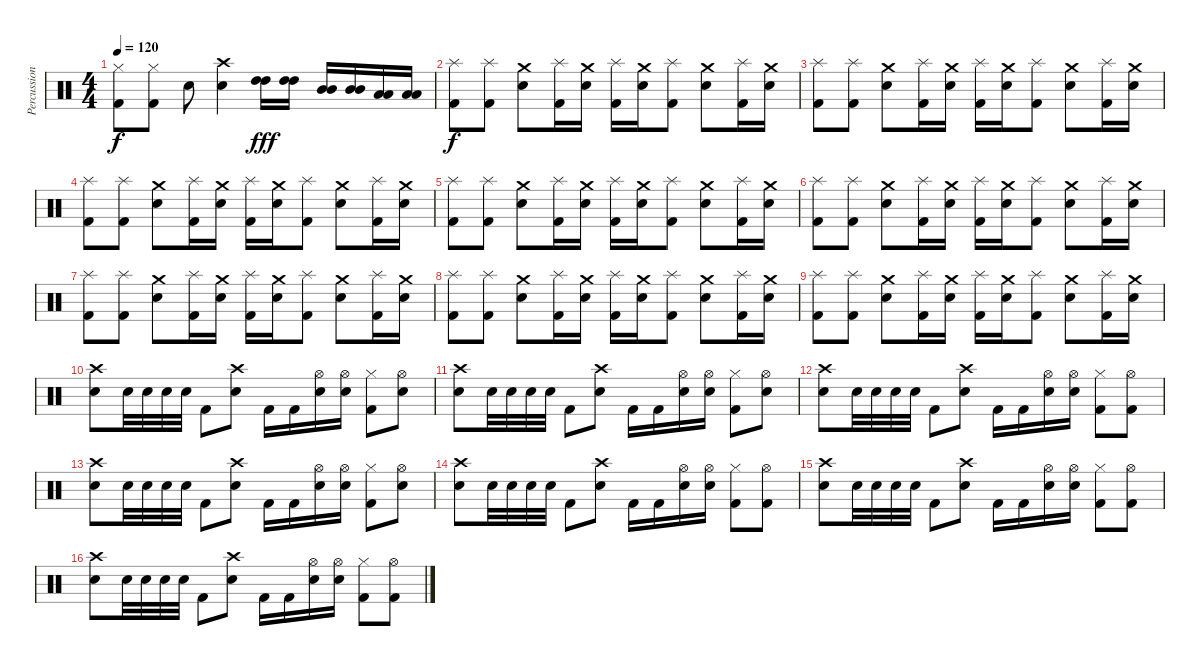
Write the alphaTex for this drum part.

\track ("Percussions" "Percussion") {instrument percussion}
\staff {score}
\articulation defaults
\ts (4 4)
\tempo 120
\clef neutral
\ks c
("Hi-Hat (closed)" "Kick (hit) 2").8{dy f} ("Hi-Hat (closed)" "Kick (hit) 2").8 "Snare (hit) 2".8 ("Crash high (hit)" "Snare (hit) 2").4 ("High Tom (hit)" "High Tom (hit)").16{dy fff} ("High Tom (hit)" "High Tom (hit)").16 ("Mid Tom (hit)" "Mid Tom (hit)").16 ("Mid Tom (hit)" "Mid Tom (hit)").16 ("Low Tom (hit)" "Low Tom (hit)").16 ("Low Tom (hit)" "Low Tom (hit)").16 |
("Splash (hit)" "Kick (hit) 2").8{dy f} ("Splash (hit)" "Kick (hit) 2").8 ("Crash medium (hit)" "Snare (hit) 2").8 ("Splash (hit)" "Kick (hit) 2").16 ("Crash medium (hit)" "Snare (hit) 2").16 ("Splash (hit)" "Kick (hit) 2").16 ("Crash medium (hit)" "Snare (hit) 2").16 ("Splash (hit)" "Kick (hit) 2").8 ("Crash medium (hit)" "Snare (hit) 2").8 ("Splash (hit)" "Kick (hit) 2").16 ("Crash medium (hit)" "Snare (hit) 2").16 |
("Splash (hit)" "Kick (hit) 2").8 ("Splash (hit)" "Kick (hit) 2").8 ("Crash medium (hit)" "Snare (hit) 2").8 ("Splash (hit)" "Kick (hit) 2").16 ("Crash medium (hit)" "Snare (hit) 2").16 ("Splash (hit)" "Kick (hit) 2").16 ("Crash medium (hit)" "Snare (hit) 2").16 ("Splash (hit)" "Kick (hit) 2").8 ("Crash medium (hit)" "Snare (hit) 2").8 ("Splash (hit)" "Kick (hit) 2").16 ("Crash medium (hit)" "Snare (hit) 2").16 |
("Splash (hit)" "Kick (hit) 2").8 ("Splash (hit)" "Kick (hit) 2").8 ("Crash medium (hit)" "Snare (hit) 2").8 ("Splash (hit)" "Kick (hit) 2").16 ("Crash medium (hit)" "Snare (hit) 2").16 ("Splash (hit)" "Kick (hit) 2").16 ("Crash medium (hit)" "Snare (hit) 2").16 ("Splash (hit)" "Kick (hit) 2").8 ("Crash medium (hit)" "Snare (hit) 2").8 ("Splash (hit)" "Kick (hit) 2").16 ("Crash medium (hit)" "Snare (hit) 2").16 |
("Splash (hit)" "Kick (hit) 2").8 ("Splash (hit)" "Kick (hit) 2").8 ("Crash medium (hit)" "Snare (hit) 2").8 ("Splash (hit)" "Kick (hit) 2").16 ("Crash medium (hit)" "Snare (hit) 2").16 ("Splash (hit)" "Kick (hit) 2").16 ("Crash medium (hit)" "Snare (hit) 2").16 ("Splash (hit)" "Kick (hit) 2").8 ("Crash medium (hit)" "Snare (hit) 2").8 ("Splash (hit)" "Kick (hit) 2").16 ("Crash medium (hit)" "Snare (hit) 2").16 |
("Splash (hit)" "Kick (hit) 2").8 ("Splash (hit)" "Kick (hit) 2").8 ("Crash medium (hit)" "Snare (hit) 2").8 ("Splash (hit)" "Kick (hit) 2").16 ("Crash medium (hit)" "Snare (hit) 2").16 ("Splash (hit)" "Kick (hit) 2").16 ("Crash medium (hit)" "Snare (hit) 2").16 ("Splash (hit)" "Kick (hit) 2").8 ("Crash medium (hit)" "Snare (hit) 2").8 ("Splash (hit)" "Kick (hit) 2").16 ("Crash medium (hit)" "Snare (hit) 2").16 |
("Splash (hit)" "Kick (hit) 2").8 ("Splash (hit)" "Kick (hit) 2").8 ("Crash medium (hit)" "Snare (hit) 2").8 ("Splash (hit)" "Kick (hit) 2").16 ("Crash medium (hit)" "Snare (hit) 2").16 ("Splash (hit)" "Kick (hit) 2").16 ("Crash medium (hit)" "Snare (hit) 2").16 ("Splash (hit)" "Kick (hit) 2").8 ("Crash medium (hit)" "Snare (hit) 2").8 ("Splash (hit)" "Kick (hit) 2").16 ("Crash medium (hit)" "Snare (hit) 2").16 |
("Splash (hit)" "Kick (hit) 2").8 ("Splash (hit)" "Kick (hit) 2").8 ("Crash medium (hit)" "Snare (hit) 2").8 ("Splash (hit)" "Kick (hit) 2").16 ("Crash medium (hit)" "Snare (hit) 2").16 ("Splash (hit)" "Kick (hit) 2").16 ("Crash medium (hit)" "Snare (hit) 2").16 ("Splash (hit)" "Kick (hit) 2").8 ("Crash medium (hit)" "Snare (hit) 2").8 ("Splash (hit)" "Kick (hit) 2").16 ("Crash medium (hit)" "Snare (hit) 2").16 |
("Splash (hit)" "Kick (hit) 2").8 ("Splash (hit)" "Kick (hit) 2").8 ("Crash medium (hit)" "Snare (hit) 2").8 ("Splash (hit)" "Kick (hit) 2").16 ("Crash medium (hit)" "Snare (hit) 2").16 ("Splash (hit)" "Kick (hit) 2").16 ("Crash medium (hit)" "Snare (hit) 2").16 ("Splash (hit)" "Kick (hit) 2").8 ("Crash medium (hit)" "Snare (hit) 2").8 ("Splash (hit)" "Kick (hit) 2").16 ("Crash medium (hit)" "Snare (hit) 2").16 |
("Crash high (hit)" "Snare (hit) 2").8 "Snare (hit) 2".32 "Snare (hit) 2".32 "Snare (hit) 2".32 "Snare (hit) 2".32 "Kick (hit) 2".8 ("Crash high (hit)" "Snare (hit) 2").8 "Kick (hit) 2".16 "Kick (hit) 2".16 ("Hi-Hat (open)" "Snare (hit) 2").16 ("Hi-Hat (open)" "Snare (hit) 2").16 ("Hi-Hat (closed)" "Kick (hit) 2").8 ("Hi-Hat (open)" "Snare (hit) 2").8 |
("Crash high (hit)" "Snare (hit) 2").8 "Snare (hit) 2".32 "Snare (hit) 2".32 "Snare (hit) 2".32 "Snare (hit) 2".32 "Kick (hit) 2".8 ("Crash high (hit)" "Snare (hit) 2").8 "Kick (hit) 2".16 "Kick (hit) 2".16 ("Hi-Hat (open)" "Snare (hit) 2").16 ("Hi-Hat (open)" "Snare (hit) 2").16 ("Hi-Hat (closed)" "Kick (hit) 2").8 ("Hi-Hat (open)" "Snare (hit) 2").8 |
("Crash high (hit)" "Snare (hit) 2").8 "Snare (hit) 2".32 "Snare (hit) 2".32 "Snare (hit) 2".32 "Snare (hit) 2".32 "Kick (hit) 2".8 ("Crash high (hit)" "Snare (hit) 2").8 "Kick (hit) 2".16 "Kick (hit) 2".16 ("Hi-Hat (open)" "Snare (hit) 2").16 ("Hi-Hat (open)" "Snare (hit) 2").16 ("Hi-Hat (closed)" "Kick (hit) 2").8 ("Hi-Hat (open)" "Kick (hit) 2").8 |
("Crash high (hit)" "Snare (hit) 2").8 "Snare (hit) 2".32 "Snare (hit) 2".32 "Snare (hit) 2".32 "Snare (hit) 2".32 "Kick (hit) 2".8 ("Crash high (hit)" "Snare (hit) 2").8 "Kick (hit) 2".16 "Kick (hit) 2".16 ("Hi-Hat (open)" "Snare (hit) 2").16 ("Hi-Hat (open)" "Snare (hit) 2").16 ("Hi-Hat (closed)" "Kick (hit) 2").8 ("Hi-Hat (open)" "Snare (hit) 2").8 |
("Crash high (hit)" "Snare (hit) 2").8 "Snare (hit) 2".32 "Snare (hit) 2".32 "Snare (hit) 2".32 "Snare (hit) 2".32 "Kick (hit) 2".8 ("Crash high (hit)" "Snare (hit) 2").8 "Kick (hit) 2".16 "Kick (hit) 2".16 ("Hi-Hat (open)" "Snare (hit) 2").16 ("Hi-Hat (open)" "Snare (hit) 2").16 ("Hi-Hat (closed)" "Kick (hit) 2").8 ("Hi-Hat (open)" "Kick (hit) 2").8 |
("Crash high (hit)" "Snare (hit) 2").8 "Snare (hit) 2".32 "Snare (hit) 2".32 "Snare (hit) 2".32 "Snare (hit) 2".32 "Kick (hit) 2".8 ("Crash high (hit)" "Snare (hit) 2").8 "Kick (hit) 2".16 "Kick (hit) 2".16 ("Hi-Hat (open)" "Snare (hit) 2").16 ("Hi-Hat (open)" "Snare (hit) 2").16 ("Hi-Hat (closed)" "Kick (hit) 2").8 ("Hi-Hat (open)" "Kick (hit) 2").8 |
("Crash high (hit)" "Snare (hit) 2").8 "Snare (hit) 2".32 "Snare (hit) 2".32 "Snare (hit) 2".32 "Snare (hit) 2".32 "Kick (hit) 2".8 ("Crash high (hit)" "Snare (hit) 2").8 "Kick (hit) 2".16 "Kick (hit) 2".16 ("Hi-Hat (open)" "Snare (hit) 2").16 ("Hi-Hat (open)" "Snare (hit) 2").16 ("Hi-Hat (closed)" "Kick (hit) 2").8 ("Hi-Hat (open)" "Kick (hit) 2").8
